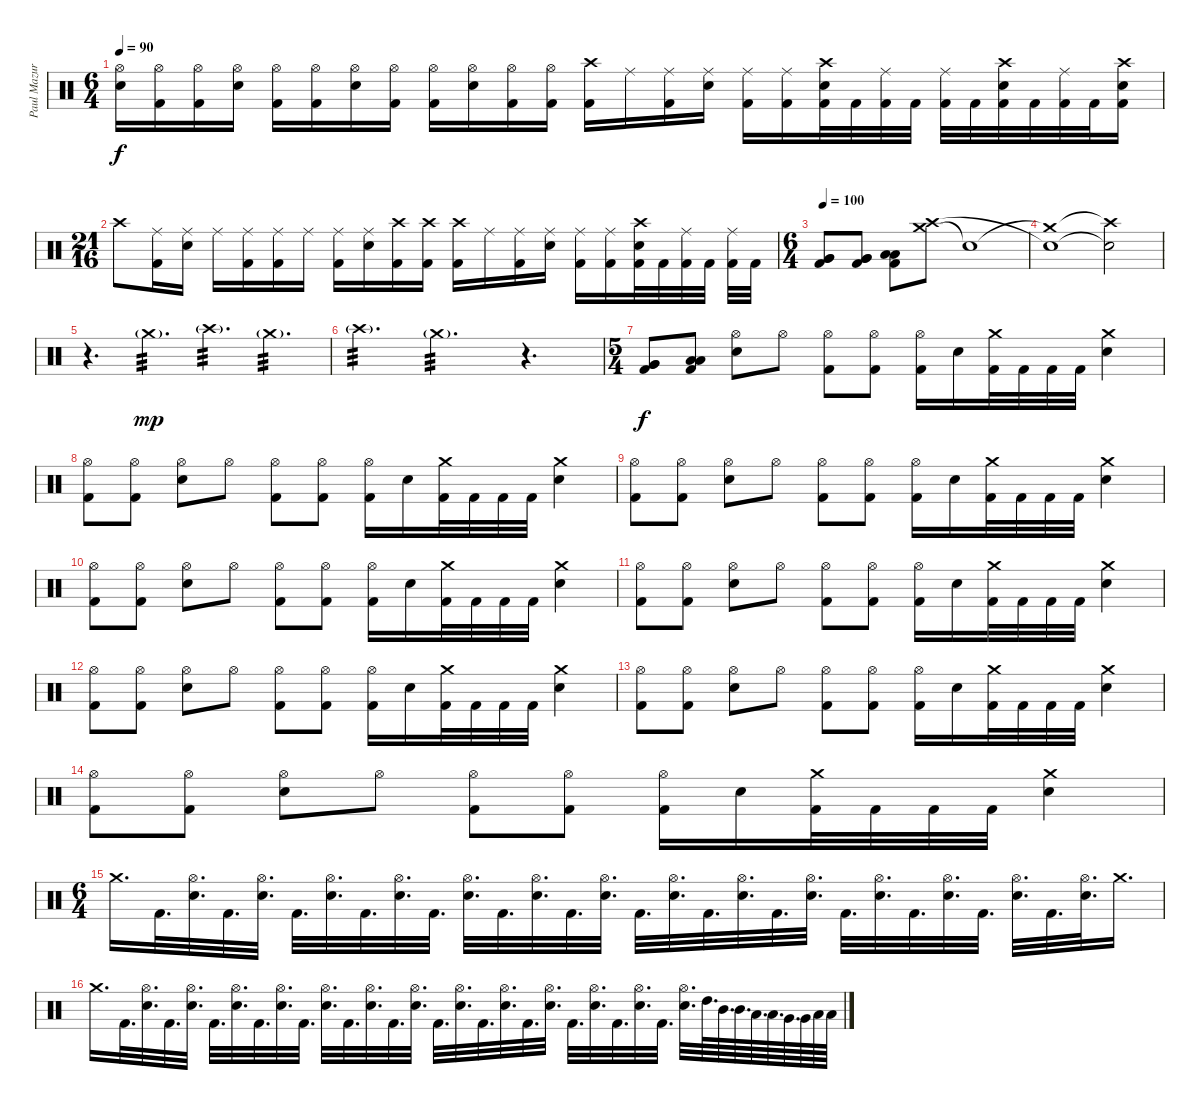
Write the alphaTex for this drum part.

\track ("Paul Mazurkiewicz" "Paul Mazur") {instrument percussion}
\staff {score}
\articulation defaults
\ts (6 4)
\tempo 90
\clef neutral
\ks c
("Hi-Hat (open)" "Electric Snare (hit)").16{dy f} ("Hi-Hat (open)" "Kick (hit) 2").16 ("Hi-Hat (open)" "Kick (hit) 2").16 ("Hi-Hat (open)" "Electric Snare (hit)").16 ("Hi-Hat (open)" "Kick (hit) 2").16 ("Hi-Hat (open)" "Kick (hit) 2").16 ("Hi-Hat (open)" "Electric Snare (hit)").16 ("Hi-Hat (open)" "Kick (hit) 2").16 ("Hi-Hat (open)" "Kick (hit) 2").16 ("Hi-Hat (open)" "Electric Snare (hit)").16 ("Hi-Hat (open)" "Kick (hit) 2").16 ("Hi-Hat (open)" "Kick (hit) 2").16 ("Crash high (hit)" "Kick (hit) 2").16 "Ride (middle)".16 ("Ride (middle)" "Kick (hit) 2").16 ("Ride (middle)" "Electric Snare (hit)").16 ("Ride (middle)" "Kick (hit) 2").16 ("Ride (middle)" "Kick (hit) 2").16 ("Crash high (hit)" "Electric Snare (hit)" "Kick (hit) 2").32 "Kick (hit) 2".32 ("Ride (middle)" "Kick (hit) 2").32 "Kick (hit) 2".32 ("Ride (middle)" "Kick (hit) 2").32 "Kick (hit) 2".32 ("Crash high (hit)" "Electric Snare (hit)" "Kick (hit) 2").32 "Kick (hit) 2".32 ("Ride (middle)" "Kick (hit) 2").32 "Kick (hit) 2".32 ("Crash high (hit)" "Electric Snare (hit)" "Kick (hit) 2").16 |
\ts (21 16)
"Crash high (hit)".8 ("Ride (middle)" "Kick (hit) 2").16 ("Ride (middle)" "Electric Snare (hit)").16 "Ride (middle)".16 ("Ride (middle)" "Kick (hit) 2").16 ("Ride (middle)" "Kick (hit) 2").16 "Ride (middle)".16 ("Ride (middle)" "Kick (hit) 2").16 ("Ride (middle)" "Electric Snare (hit)").16 ("Crash high (hit)" "Kick (hit) 2").16 ("Crash high (hit)" "Kick (hit) 2").16 ("Crash high (hit)" "Kick (hit) 2").16 "Ride (middle)".16 ("Ride (middle)" "Kick (hit) 2").16 ("Ride (middle)" "Electric Snare (hit)").16 ("Ride (middle)" "Kick (hit) 2").16 ("Ride (middle)" "Kick (hit) 2").16 ("Crash high (hit)" "Electric Snare (hit)" "Kick (hit) 2").32 "Kick (hit) 2".32 ("Ride (middle)" "Kick (hit) 2").32 "Kick (hit) 2".32 ("Ride (middle)" "Kick (hit) 2").32 "Kick (hit) 2".32 |
\ts (6 4)
\tempo 100
("Very Low Tom (hit)" "Very Low Tom (hit)" "Kick (hit) 2").8 ("Very Low Tom (hit)" "Very Low Tom (hit)" "Kick (hit) 2").8 ("Low Floor Tom (hit)" "Low Floor Tom (hit)" "Kick (hit) 2").8 ("Crash medium (hit)" "Crash high (hit)").8 "Snare (hit)"{t}.1 |
("Crash medium (hit)"{t} "Snare (hit)"{t}).1 ("Crash high (hit)"{t} "Snare (hit)"{t}).2 |
r.4{d} "Crash medium (hit)"{g}.4{d tp 3 dy mp} "Crash high (hit)"{g}.4{d tp 3} "Crash medium (hit)"{g}.4{d tp 3} |
"Crash high (hit)"{g}.4{d tp 3} "Crash medium (hit)"{g}.2{d tp 3} r.4{d} |
\ts (5 4)
("Very Low Tom (hit)" "Very Low Tom (hit)" "Kick (hit) 2").8{dy f} ("Low Floor Tom (hit)" "Low Floor Tom (hit)" "Kick (hit) 2").8 ("Hi-Hat (open)" "Electric Snare (hit)").8 "Hi-Hat (open)".8 ("Hi-Hat (open)" "Kick (hit) 2").8 ("Hi-Hat (open)" "Kick (hit) 2").8 ("Hi-Hat (open)" "Kick (hit) 2").16 "Electric Snare (hit)".16 ("Crash medium (hit)" "Kick (hit) 2").32 "Kick (hit) 2".32 "Kick (hit) 2".32 "Kick (hit) 2".32 ("Crash medium (hit)" "Electric Snare (hit)").4 |
("Hi-Hat (open)" "Kick (hit) 2").8 ("Hi-Hat (open)" "Kick (hit) 2").8 ("Hi-Hat (open)" "Electric Snare (hit)").8 "Hi-Hat (open)".8 ("Hi-Hat (open)" "Kick (hit) 2").8 ("Hi-Hat (open)" "Kick (hit) 2").8 ("Hi-Hat (open)" "Kick (hit) 2").16 "Electric Snare (hit)".16 ("Crash medium (hit)" "Kick (hit) 2").32 "Kick (hit) 2".32 "Kick (hit) 2".32 "Kick (hit) 2".32 ("Crash medium (hit)" "Electric Snare (hit)").4 |
("Hi-Hat (open)" "Kick (hit) 2").8 ("Hi-Hat (open)" "Kick (hit) 2").8 ("Hi-Hat (open)" "Electric Snare (hit)").8 "Hi-Hat (open)".8 ("Hi-Hat (open)" "Kick (hit) 2").8 ("Hi-Hat (open)" "Kick (hit) 2").8 ("Hi-Hat (open)" "Kick (hit) 2").16 "Electric Snare (hit)".16 ("Crash medium (hit)" "Kick (hit) 2").32 "Kick (hit) 2".32 "Kick (hit) 2".32 "Kick (hit) 2".32 ("Crash medium (hit)" "Electric Snare (hit)").4 |
("Hi-Hat (open)" "Kick (hit) 2").8 ("Hi-Hat (open)" "Kick (hit) 2").8 ("Hi-Hat (open)" "Electric Snare (hit)").8 "Hi-Hat (open)".8 ("Hi-Hat (open)" "Kick (hit) 2").8 ("Hi-Hat (open)" "Kick (hit) 2").8 ("Hi-Hat (open)" "Kick (hit) 2").16 "Electric Snare (hit)".16 ("Crash medium (hit)" "Kick (hit) 2").32 "Kick (hit) 2".32 "Kick (hit) 2".32 "Kick (hit) 2".32 ("Crash medium (hit)" "Electric Snare (hit)").4 |
("Hi-Hat (open)" "Kick (hit) 2").8 ("Hi-Hat (open)" "Kick (hit) 2").8 ("Hi-Hat (open)" "Electric Snare (hit)").8 "Hi-Hat (open)".8 ("Hi-Hat (open)" "Kick (hit) 2").8 ("Hi-Hat (open)" "Kick (hit) 2").8 ("Hi-Hat (open)" "Kick (hit) 2").16 "Electric Snare (hit)".16 ("Crash medium (hit)" "Kick (hit) 2").32 "Kick (hit) 2".32 "Kick (hit) 2".32 "Kick (hit) 2".32 ("Crash medium (hit)" "Electric Snare (hit)").4 |
("Hi-Hat (open)" "Kick (hit) 2").8 ("Hi-Hat (open)" "Kick (hit) 2").8 ("Hi-Hat (open)" "Electric Snare (hit)").8 "Hi-Hat (open)".8 ("Hi-Hat (open)" "Kick (hit) 2").8 ("Hi-Hat (open)" "Kick (hit) 2").8 ("Hi-Hat (open)" "Kick (hit) 2").16 "Electric Snare (hit)".16 ("Crash medium (hit)" "Kick (hit) 2").32 "Kick (hit) 2".32 "Kick (hit) 2".32 "Kick (hit) 2".32 ("Crash medium (hit)" "Electric Snare (hit)").4 |
("Hi-Hat (open)" "Kick (hit) 2").8 ("Hi-Hat (open)" "Kick (hit) 2").8 ("Hi-Hat (open)" "Electric Snare (hit)").8 "Hi-Hat (open)".8 ("Hi-Hat (open)" "Kick (hit) 2").8 ("Hi-Hat (open)" "Kick (hit) 2").8 ("Hi-Hat (open)" "Kick (hit) 2").16 "Electric Snare (hit)".16 ("Crash medium (hit)" "Kick (hit) 2").32 "Kick (hit) 2".32 "Kick (hit) 2".32 "Kick (hit) 2".32 ("Crash medium (hit)" "Electric Snare (hit)").4 |
("Hi-Hat (open)" "Kick (hit) 2").8 ("Hi-Hat (open)" "Kick (hit) 2").8 ("Hi-Hat (open)" "Electric Snare (hit)").8 "Hi-Hat (open)".8 ("Hi-Hat (open)" "Kick (hit) 2").8 ("Hi-Hat (open)" "Kick (hit) 2").8 ("Hi-Hat (open)" "Kick (hit) 2").16 "Electric Snare (hit)".16 ("Crash medium (hit)" "Kick (hit) 2").32 "Kick (hit) 2".32 "Kick (hit) 2".32 "Kick (hit) 2".32 ("Crash medium (hit)" "Electric Snare (hit)").4 |
\ts (6 4)
"Crash medium (hit)".16{d} "Kick (hit) 2".32{d} ("Hi-Hat (open)" "Electric Snare (hit)").32{d} "Kick (hit) 2".32{d} ("Hi-Hat (open)" "Electric Snare (hit)").32{d} "Kick (hit) 2".32{d} ("Hi-Hat (open)" "Electric Snare (hit)").32{d} "Kick (hit) 2".32{d} ("Hi-Hat (open)" "Electric Snare (hit)").32{d} "Kick (hit) 2".32{d} ("Hi-Hat (open)" "Electric Snare (hit)").32{d} "Kick (hit) 2".32{d} ("Hi-Hat (open)" "Electric Snare (hit)").32{d} "Kick (hit) 2".32{d} ("Hi-Hat (open)" "Electric Snare (hit)").32{d} "Kick (hit) 2".32{d} ("Hi-Hat (open)" "Electric Snare (hit)").32{d} "Kick (hit) 2".32{d} ("Hi-Hat (open)" "Electric Snare (hit)").32{d} "Kick (hit) 2".32{d} ("Hi-Hat (open)" "Electric Snare (hit)").32{d} "Kick (hit) 2".32{d} ("Hi-Hat (open)" "Electric Snare (hit)").32{d} "Kick (hit) 2".32{d} ("Hi-Hat (open)" "Electric Snare (hit)").32{d} "Kick (hit) 2".32{d} ("Hi-Hat (open)" "Electric Snare (hit)").32{d} "Kick (hit) 2".32{d} ("Hi-Hat (open)" "Electric Snare (hit)").32{d} "Crash medium (hit)".16{d} |
"Crash medium (hit)".16{d} "Kick (hit) 2".32{d} ("Hi-Hat (open)" "Electric Snare (hit)").32{d} "Kick (hit) 2".32{d} ("Hi-Hat (open)" "Electric Snare (hit)").32{d} "Kick (hit) 2".32{d} ("Hi-Hat (open)" "Electric Snare (hit)").32{d} "Kick (hit) 2".32{d} ("Hi-Hat (open)" "Electric Snare (hit)").32{d} "Kick (hit) 2".32{d} ("Hi-Hat (open)" "Electric Snare (hit)").32{d} "Kick (hit) 2".32{d} ("Hi-Hat (open)" "Electric Snare (hit)").32{d} "Kick (hit) 2".32{d} ("Hi-Hat (open)" "Electric Snare (hit)").32{d} "Kick (hit) 2".32{d} ("Hi-Hat (open)" "Electric Snare (hit)").32{d} "Kick (hit) 2".32{d} ("Hi-Hat (open)" "Electric Snare (hit)").32{d} "Kick (hit) 2".32{d} ("Hi-Hat (open)" "Electric Snare (hit)").32{d} "Kick (hit) 2".32{d} ("Hi-Hat (open)" "Electric Snare (hit)").32{d} "Kick (hit) 2".32{d} ("Hi-Hat (open)" "Electric Snare (hit)").32{d} "Kick (hit) 2".32{d} ("Hi-Hat (open)" "Electric Snare (hit)").32{d} "High Tom (hit)".64{d} "Mid Tom (hit)".64{d} "Mid Tom (hit)".64{d} "Low Tom (hit)".64{d} "Low Tom (hit)".64{d} "Very Low Tom (hit)".64{d} "Very Low Tom (hit)".64 "Low Floor Tom (hit)".64 "Low Floor Tom (hit)".64
